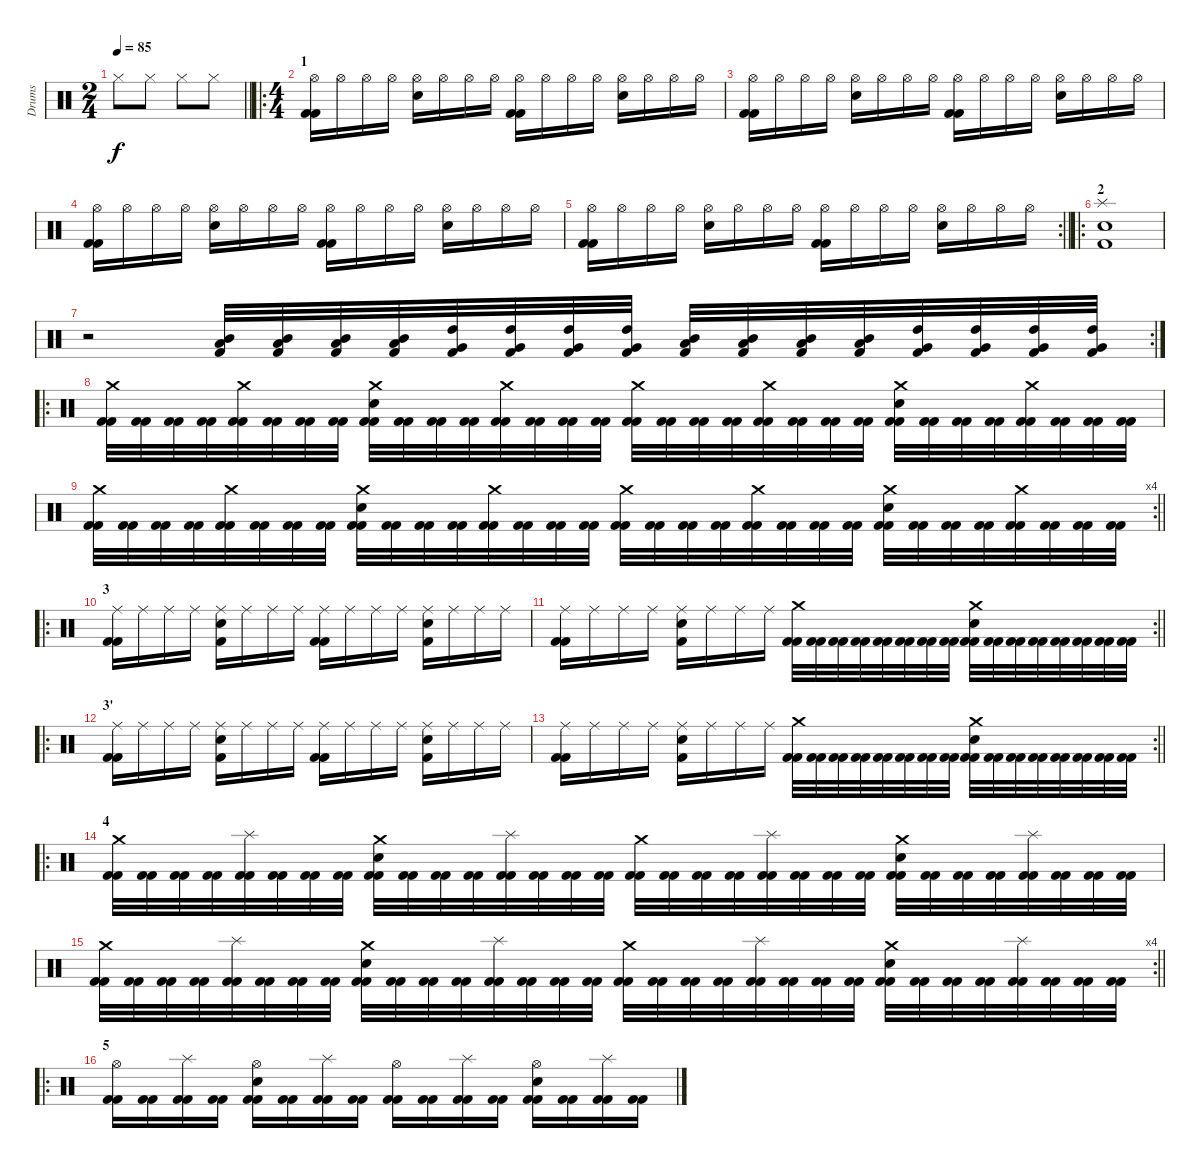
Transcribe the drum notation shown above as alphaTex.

\track ("Drums" "Drums") {instrument percussion}
\staff {score}
\articulation defaults
\ts (2 4)
\tempo 85
\clef neutral
\barLineRight lightlight
\ks c "Hi-Hat (closed)".8{dy f} "Hi-Hat (closed)".8 "Hi-Hat (closed)".8 "Hi-Hat (closed)".8
|
\ro
\ts (4 4)
\section ("" "1")
("Kick (hit) 2" "Kick (hit) 2" "Hi-Hat (open)").16 "Hi-Hat (open)".16 "Hi-Hat (open)".16 "Hi-Hat (open)".16 ("Snare (hit) 2" "Hi-Hat (open)").16 "Hi-Hat (open)".16 "Hi-Hat (open)".16 "Hi-Hat (open)".16 ("Kick (hit) 2" "Kick (hit) 2" "Hi-Hat (open)").16 "Hi-Hat (open)".16 "Hi-Hat (open)".16 "Hi-Hat (open)".16 ("Snare (hit) 2" "Hi-Hat (open)").16 "Hi-Hat (open)".16 "Hi-Hat (open)".16 "Hi-Hat (open)".16 |
("Kick (hit) 2" "Kick (hit) 2" "Hi-Hat (open)").16 "Hi-Hat (open)".16 "Hi-Hat (open)".16 "Hi-Hat (open)".16 ("Snare (hit) 2" "Hi-Hat (open)").16 "Hi-Hat (open)".16 "Hi-Hat (open)".16 "Hi-Hat (open)".16 ("Kick (hit) 2" "Kick (hit) 2" "Hi-Hat (open)").16 "Hi-Hat (open)".16 "Hi-Hat (open)".16 "Hi-Hat (open)".16 ("Snare (hit) 2" "Hi-Hat (open)").16 "Hi-Hat (open)".16 "Hi-Hat (open)".16 "Hi-Hat (open)".16 |
("Kick (hit) 2" "Kick (hit) 2" "Hi-Hat (open)").16 "Hi-Hat (open)".16 "Hi-Hat (open)".16 "Hi-Hat (open)".16 ("Snare (hit) 2" "Hi-Hat (open)").16 "Hi-Hat (open)".16 "Hi-Hat (open)".16 "Hi-Hat (open)".16 ("Kick (hit) 2" "Kick (hit) 2" "Hi-Hat (open)").16 "Hi-Hat (open)".16 "Hi-Hat (open)".16 "Hi-Hat (open)".16 ("Snare (hit) 2" "Hi-Hat (open)").16 "Hi-Hat (open)".16 "Hi-Hat (open)".16 "Hi-Hat (open)".16 |
\rc 2
\barLineRight lightlight
("Kick (hit) 2" "Kick (hit) 2" "Hi-Hat (open)").16 "Hi-Hat (open)".16 "Hi-Hat (open)".16 "Hi-Hat (open)".16 ("Snare (hit) 2" "Hi-Hat (open)").16 "Hi-Hat (open)".16 "Hi-Hat (open)".16 "Hi-Hat (open)".16 ("Kick (hit) 2" "Kick (hit) 2" "Hi-Hat (open)").16 "Hi-Hat (open)".16 "Hi-Hat (open)".16 "Hi-Hat (open)".16 ("Snare (hit) 2" "Hi-Hat (open)").16 "Hi-Hat (open)".16 "Hi-Hat (open)".16 "Hi-Hat (open)".16 |
\ro
\section ("" "2")
("Kick (hit) 2" "Splash (hit)" "Snare (hit) 2").1 |
\rc 2
r.2 ("Kick (hit) 2" "Mid Tom (hit)" "Low Tom (hit)").32 ("Kick (hit) 2" "Mid Tom (hit)" "Low Tom (hit)").32 ("Kick (hit) 2" "Mid Tom (hit)" "Low Tom (hit)").32 ("Kick (hit) 2" "Mid Tom (hit)" "Low Tom (hit)").32 ("Kick (hit) 2" "High Tom (hit)" "Very Low Tom (hit)").32 ("Kick (hit) 2" "High Tom (hit)" "Very Low Tom (hit)").32 ("Kick (hit) 2" "High Tom (hit)" "Very Low Tom (hit)").32 ("Kick (hit) 2" "High Tom (hit)" "Very Low Tom (hit)").32 ("Kick (hit) 2" "Low Tom (hit)" "Mid Tom (hit)").32 ("Kick (hit) 2" "Low Tom (hit)" "Mid Tom (hit)").32 ("Kick (hit) 2" "Low Tom (hit)" "Mid Tom (hit)").32 ("Kick (hit) 2" "Low Tom (hit)" "Mid Tom (hit)").32 ("Kick (hit) 2" "Very Low Tom (hit)" "High Tom (hit)").32 ("Kick (hit) 2" "Very Low Tom (hit)" "High Tom (hit)").32 ("Kick (hit) 2" "Very Low Tom (hit)" "High Tom (hit)").32 ("Kick (hit) 2" "Very Low Tom (hit)" "High Tom (hit)").32 |
\ro
("Crash medium (hit)" "Kick (hit) 2" "Kick (hit) 2").32 ("Kick (hit) 2" "Kick (hit) 2").32 ("Kick (hit) 2" "Kick (hit) 2").32 ("Kick (hit) 2" "Kick (hit) 2").32 ("Crash medium (hit)" "Kick (hit) 2" "Kick (hit) 2").32 ("Kick (hit) 2" "Kick (hit) 2").32 ("Kick (hit) 2" "Kick (hit) 2").32 ("Kick (hit) 2" "Kick (hit) 2").32 ("Snare (hit) 2" "Crash medium (hit)" "Kick (hit) 2" "Kick (hit) 2").32 ("Kick (hit) 2" "Kick (hit) 2").32 ("Kick (hit) 2" "Kick (hit) 2").32 ("Kick (hit) 2" "Kick (hit) 2").32 ("Crash medium (hit)" "Kick (hit) 2" "Kick (hit) 2").32 ("Kick (hit) 2" "Kick (hit) 2").32 ("Kick (hit) 2" "Kick (hit) 2").32 ("Kick (hit) 2" "Kick (hit) 2").32 ("Crash medium (hit)" "Kick (hit) 2" "Kick (hit) 2").32 ("Kick (hit) 2" "Kick (hit) 2").32 ("Kick (hit) 2" "Kick (hit) 2").32 ("Kick (hit) 2" "Kick (hit) 2").32 ("Crash medium (hit)" "Kick (hit) 2" "Kick (hit) 2").32 ("Kick (hit) 2" "Kick (hit) 2").32 ("Kick (hit) 2" "Kick (hit) 2").32 ("Kick (hit) 2" "Kick (hit) 2").32 ("Snare (hit) 2" "Crash medium (hit)" "Kick (hit) 2" "Kick (hit) 2").32 ("Kick (hit) 2" "Kick (hit) 2").32 ("Kick (hit) 2" "Kick (hit) 2").32 ("Kick (hit) 2" "Kick (hit) 2").32 ("Crash medium (hit)" "Kick (hit) 2" "Kick (hit) 2").32 ("Kick (hit) 2" "Kick (hit) 2").32 ("Kick (hit) 2" "Kick (hit) 2").32 ("Kick (hit) 2" "Kick (hit) 2").32 |
\rc 4
\barLineRight lightlight
("Crash medium (hit)" "Kick (hit) 2" "Kick (hit) 2").32 ("Kick (hit) 2" "Kick (hit) 2").32 ("Kick (hit) 2" "Kick (hit) 2").32 ("Kick (hit) 2" "Kick (hit) 2").32 ("Crash medium (hit)" "Kick (hit) 2" "Kick (hit) 2").32 ("Kick (hit) 2" "Kick (hit) 2").32 ("Kick (hit) 2" "Kick (hit) 2").32 ("Kick (hit) 2" "Kick (hit) 2").32 ("Snare (hit) 2" "Crash medium (hit)" "Kick (hit) 2" "Kick (hit) 2").32 ("Kick (hit) 2" "Kick (hit) 2").32 ("Kick (hit) 2" "Kick (hit) 2").32 ("Kick (hit) 2" "Kick (hit) 2").32 ("Crash medium (hit)" "Kick (hit) 2" "Kick (hit) 2").32 ("Kick (hit) 2" "Kick (hit) 2").32 ("Kick (hit) 2" "Kick (hit) 2").32 ("Kick (hit) 2" "Kick (hit) 2").32 ("Crash medium (hit)" "Kick (hit) 2" "Kick (hit) 2").32 ("Kick (hit) 2" "Kick (hit) 2").32 ("Kick (hit) 2" "Kick (hit) 2").32 ("Kick (hit) 2" "Kick (hit) 2").32 ("Crash medium (hit)" "Kick (hit) 2" "Kick (hit) 2").32 ("Kick (hit) 2" "Kick (hit) 2").32 ("Kick (hit) 2" "Kick (hit) 2").32 ("Kick (hit) 2" "Kick (hit) 2").32 ("Snare (hit) 2" "Crash medium (hit)" "Kick (hit) 2" "Kick (hit) 2").32 ("Kick (hit) 2" "Kick (hit) 2").32 ("Kick (hit) 2" "Kick (hit) 2").32 ("Kick (hit) 2" "Kick (hit) 2").32 ("Crash medium (hit)" "Kick (hit) 2" "Kick (hit) 2").32 ("Kick (hit) 2" "Kick (hit) 2").32 ("Kick (hit) 2" "Kick (hit) 2").32 ("Kick (hit) 2" "Kick (hit) 2").32 |
\ro
\section ("" "3")
("Kick (hit) 2" "Kick (hit) 2" "Ride (middle)").16 "Ride (middle)".16 "Ride (middle)".16 "Ride (middle)".16 ("Snare (hit) 2" "Kick (hit) 2" "Ride (middle)").16 "Ride (middle)".16 "Ride (middle)".16 "Ride (middle)".16 ("Kick (hit) 2" "Kick (hit) 2" "Ride (middle)").16 "Ride (middle)".16 "Ride (middle)".16 "Ride (middle)".16 ("Snare (hit) 2" "Kick (hit) 2" "Ride (middle)").16 "Ride (middle)".16 "Ride (middle)".16 "Ride (middle)".16 |
\rc 2
\barLineRight lightlight
("Kick (hit) 2" "Kick (hit) 2" "Ride (middle)").16 "Ride (middle)".16 "Ride (middle)".16 "Ride (middle)".16 ("Snare (hit) 2" "Kick (hit) 2" "Ride (middle)").16 "Ride (middle)".16 "Ride (middle)".16 "Ride (middle)".16 ("Crash medium (hit)" "Kick (hit) 2" "Kick (hit) 2").32 ("Kick (hit) 2" "Kick (hit) 2").32 ("Kick (hit) 2" "Kick (hit) 2").32 ("Kick (hit) 2" "Kick (hit) 2").32 ("Kick (hit) 2" "Kick (hit) 2").32 ("Kick (hit) 2" "Kick (hit) 2").32 ("Kick (hit) 2" "Kick (hit) 2").32 ("Kick (hit) 2" "Kick (hit) 2").32 ("Crash medium (hit)" "Snare (hit) 2" "Kick (hit) 2" "Kick (hit) 2").32 ("Kick (hit) 2" "Kick (hit) 2").32 ("Kick (hit) 2" "Kick (hit) 2").32 ("Kick (hit) 2" "Kick (hit) 2").32 ("Kick (hit) 2" "Kick (hit) 2").32 ("Kick (hit) 2" "Kick (hit) 2").32 ("Kick (hit) 2" "Kick (hit) 2").32 ("Kick (hit) 2" "Kick (hit) 2").32 |
\ro
\section ("" "3'")
("Kick (hit) 2" "Kick (hit) 2" "Ride (middle)").16 "Ride (middle)".16 "Ride (middle)".16 "Ride (middle)".16 ("Snare (hit) 2" "Kick (hit) 2" "Ride (middle)").16 "Ride (middle)".16 "Ride (middle)".16 "Ride (middle)".16 ("Kick (hit) 2" "Kick (hit) 2" "Ride (middle)").16 "Ride (middle)".16 "Ride (middle)".16 "Ride (middle)".16 ("Snare (hit) 2" "Kick (hit) 2" "Ride (middle)").16 "Ride (middle)".16 "Ride (middle)".16 "Ride (middle)".16 |
\rc 2
\barLineRight lightlight
("Kick (hit) 2" "Kick (hit) 2" "Ride (middle)").16 "Ride (middle)".16 "Ride (middle)".16 "Ride (middle)".16 ("Snare (hit) 2" "Kick (hit) 2" "Ride (middle)").16 "Ride (middle)".16 "Ride (middle)".16 "Ride (middle)".16 ("Crash medium (hit)" "Kick (hit) 2" "Kick (hit) 2").32 ("Kick (hit) 2" "Kick (hit) 2").32 ("Kick (hit) 2" "Kick (hit) 2").32 ("Kick (hit) 2" "Kick (hit) 2").32 ("Kick (hit) 2" "Kick (hit) 2").32 ("Kick (hit) 2" "Kick (hit) 2").32 ("Kick (hit) 2" "Kick (hit) 2").32 ("Kick (hit) 2" "Kick (hit) 2").32 ("Crash medium (hit)" "Snare (hit) 2" "Kick (hit) 2" "Kick (hit) 2").32 ("Kick (hit) 2" "Kick (hit) 2").32 ("Kick (hit) 2" "Kick (hit) 2").32 ("Kick (hit) 2" "Kick (hit) 2").32 ("Kick (hit) 2" "Kick (hit) 2").32 ("Kick (hit) 2" "Kick (hit) 2").32 ("Kick (hit) 2" "Kick (hit) 2").32 ("Kick (hit) 2" "Kick (hit) 2").32 |
\ro
\section ("" "4")
("Crash medium (hit)" "Kick (hit) 2" "Kick (hit) 2").32 ("Kick (hit) 2" "Kick (hit) 2").32 ("Kick (hit) 2" "Kick (hit) 2").32 ("Kick (hit) 2" "Kick (hit) 2").32 ("Splash (hit)" "Kick (hit) 2" "Kick (hit) 2").32 ("Kick (hit) 2" "Kick (hit) 2").32 ("Kick (hit) 2" "Kick (hit) 2").32 ("Kick (hit) 2" "Kick (hit) 2").32 ("Crash medium (hit)" "Snare (hit) 2" "Kick (hit) 2" "Kick (hit) 2").32 ("Kick (hit) 2" "Kick (hit) 2").32 ("Kick (hit) 2" "Kick (hit) 2").32 ("Kick (hit) 2" "Kick (hit) 2").32 ("Splash (hit)" "Kick (hit) 2" "Kick (hit) 2").32 ("Kick (hit) 2" "Kick (hit) 2").32 ("Kick (hit) 2" "Kick (hit) 2").32 ("Kick (hit) 2" "Kick (hit) 2").32 ("Crash medium (hit)" "Kick (hit) 2" "Kick (hit) 2").32 ("Kick (hit) 2" "Kick (hit) 2").32 ("Kick (hit) 2" "Kick (hit) 2").32 ("Kick (hit) 2" "Kick (hit) 2").32 ("Splash (hit)" "Kick (hit) 2" "Kick (hit) 2").32 ("Kick (hit) 2" "Kick (hit) 2").32 ("Kick (hit) 2" "Kick (hit) 2").32 ("Kick (hit) 2" "Kick (hit) 2").32 ("Crash medium (hit)" "Snare (hit) 2" "Kick (hit) 2" "Kick (hit) 2").32 ("Kick (hit) 2" "Kick (hit) 2").32 ("Kick (hit) 2" "Kick (hit) 2").32 ("Kick (hit) 2" "Kick (hit) 2").32 ("Splash (hit)" "Kick (hit) 2" "Kick (hit) 2").32 ("Kick (hit) 2" "Kick (hit) 2").32 ("Kick (hit) 2" "Kick (hit) 2").32 ("Kick (hit) 2" "Kick (hit) 2").32 |
\rc 4
\barLineRight lightlight
("Crash medium (hit)" "Kick (hit) 2" "Kick (hit) 2").32 ("Kick (hit) 2" "Kick (hit) 2").32 ("Kick (hit) 2" "Kick (hit) 2").32 ("Kick (hit) 2" "Kick (hit) 2").32 ("Splash (hit)" "Kick (hit) 2" "Kick (hit) 2").32 ("Kick (hit) 2" "Kick (hit) 2").32 ("Kick (hit) 2" "Kick (hit) 2").32 ("Kick (hit) 2" "Kick (hit) 2").32 ("Crash medium (hit)" "Snare (hit) 2" "Kick (hit) 2" "Kick (hit) 2").32 ("Kick (hit) 2" "Kick (hit) 2").32 ("Kick (hit) 2" "Kick (hit) 2").32 ("Kick (hit) 2" "Kick (hit) 2").32 ("Splash (hit)" "Kick (hit) 2" "Kick (hit) 2").32 ("Kick (hit) 2" "Kick (hit) 2").32 ("Kick (hit) 2" "Kick (hit) 2").32 ("Kick (hit) 2" "Kick (hit) 2").32 ("Crash medium (hit)" "Kick (hit) 2" "Kick (hit) 2").32 ("Kick (hit) 2" "Kick (hit) 2").32 ("Kick (hit) 2" "Kick (hit) 2").32 ("Kick (hit) 2" "Kick (hit) 2").32 ("Splash (hit)" "Kick (hit) 2" "Kick (hit) 2").32 ("Kick (hit) 2" "Kick (hit) 2").32 ("Kick (hit) 2" "Kick (hit) 2").32 ("Kick (hit) 2" "Kick (hit) 2").32 ("Crash medium (hit)" "Snare (hit) 2" "Kick (hit) 2" "Kick (hit) 2").32 ("Kick (hit) 2" "Kick (hit) 2").32 ("Kick (hit) 2" "Kick (hit) 2").32 ("Kick (hit) 2" "Kick (hit) 2").32 ("Splash (hit)" "Kick (hit) 2" "Kick (hit) 2").32 ("Kick (hit) 2" "Kick (hit) 2").32 ("Kick (hit) 2" "Kick (hit) 2").32 ("Kick (hit) 2" "Kick (hit) 2").32 |
\ro
\section ("" "5")
("Hi-Hat (open)" "Kick (hit) 2" "Kick (hit) 2").16 ("Kick (hit) 2" "Kick (hit) 2").16 ("Splash (hit)" "Kick (hit) 2" "Kick (hit) 2").16 ("Kick (hit) 2" "Kick (hit) 2").16 ("Hi-Hat (open)" "Snare (hit) 2" "Kick (hit) 2" "Kick (hit) 2").16 ("Kick (hit) 2" "Kick (hit) 2").16 ("Splash (hit)" "Kick (hit) 2" "Kick (hit) 2").16 ("Kick (hit) 2" "Kick (hit) 2").16 ("Hi-Hat (open)" "Kick (hit) 2" "Kick (hit) 2").16 ("Kick (hit) 2" "Kick (hit) 2").16 ("Splash (hit)" "Kick (hit) 2" "Kick (hit) 2").16 ("Kick (hit) 2" "Kick (hit) 2").16 ("Hi-Hat (open)" "Snare (hit) 2" "Kick (hit) 2" "Kick (hit) 2").16 ("Kick (hit) 2" "Kick (hit) 2").16 ("Splash (hit)" "Kick (hit) 2" "Kick (hit) 2").16 ("Kick (hit) 2" "Kick (hit) 2").16
